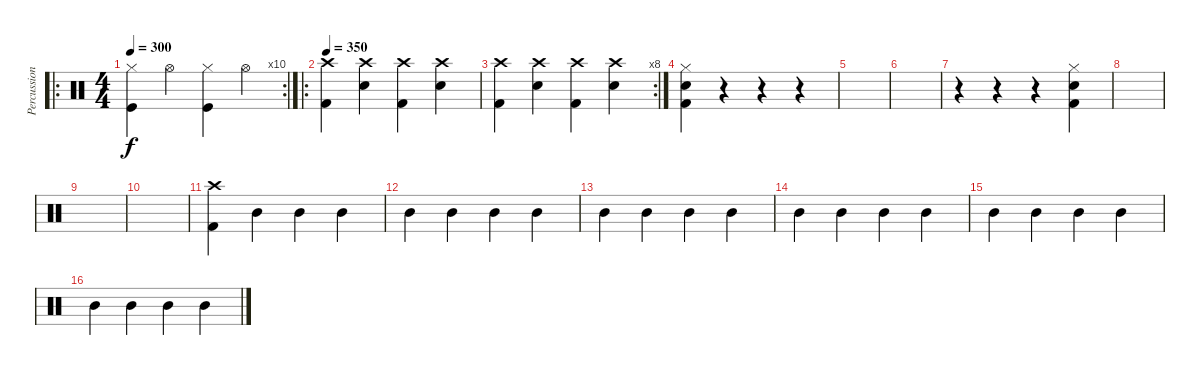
\track ("Percussion" "Percussion") {instrument percussion}
\staff {score}
\articulation defaults
\ro
\rc 10
\ts (4 4)
\tempo 300
\tempo 350
\tempo 300
\clef neutral
\ks c
("Hi-Hat (closed)" "Kick (hit)").4{dy f} "Hi-Hat (open)".4 ("Hi-Hat (closed)" "Kick (hit)").4 "Hi-Hat (open)".4 |
\ro
\tempo 350
("Kick (hit) 2" "Crash high (hit)").4 ("Electric Snare (hit)" "Crash high (hit)").4 ("Kick (hit) 2" "Crash high (hit)").4 ("Electric Snare (hit)" "Crash high (hit)").4 |
\rc 8
("Kick (hit) 2" "Crash high (hit)").4 ("Electric Snare (hit)" "Crash high (hit)").4 ("Kick (hit) 2" "Crash high (hit)").4 ("Electric Snare (hit)" "Crash high (hit)").4 |
("Kick (hit) 2" "Hi-Hat (closed)" "Electric Snare (hit)").4 r.4 r.4 r.4 |
|
|
r.4 r.4 r.4 ("Kick (hit) 2" "Hi-Hat (closed)" "Electric Snare (hit)").4 |
|
|
|
("Kick (hit) 2" "Crash high (hit)").4 "Mid Tom (hit)".4 "Mid Tom (hit)".4 "Mid Tom (hit)".4 |
"Mid Tom (hit)".4 "Mid Tom (hit)".4 "Mid Tom (hit)".4 "Mid Tom (hit)".4 |
"Mid Tom (hit)".4 "Mid Tom (hit)".4 "Mid Tom (hit)".4 "Mid Tom (hit)".4 |
"Mid Tom (hit)".4 "Mid Tom (hit)".4 "Mid Tom (hit)".4 "Mid Tom (hit)".4 |
"Mid Tom (hit)".4 "Mid Tom (hit)".4 "Mid Tom (hit)".4 "Mid Tom (hit)".4 |
"Mid Tom (hit)".4 "Mid Tom (hit)".4 "Mid Tom (hit)".4 "Mid Tom (hit)".4
